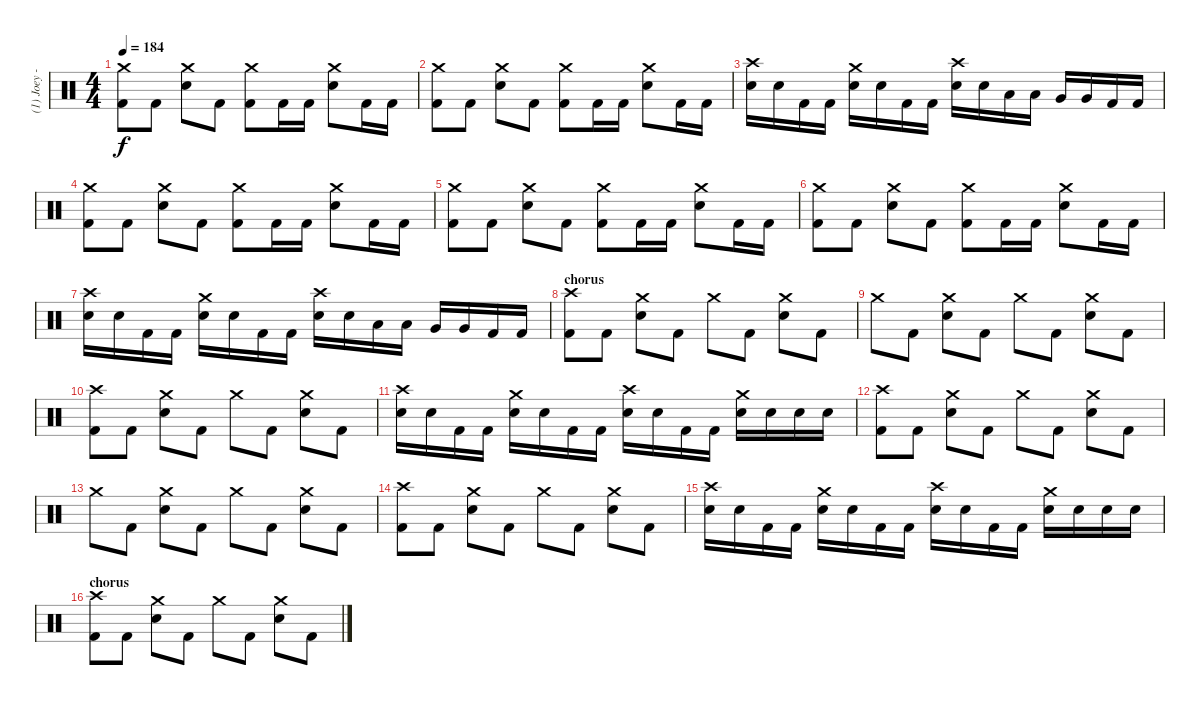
\track ("(1) Joey - drums" "(1) Joey -") {instrument percussion}
\staff {score}
\articulation defaults
\ts (4 4)
\tempo 184
\clef neutral
\ks c
("Crash medium (hit)" "Kick (hit) 2").8{dy f} "Kick (hit) 2".8 ("Crash medium (hit)" "Electric Snare (hit)").8 "Kick (hit) 2".8 ("Crash medium (hit)" "Kick (hit) 2").8 "Kick (hit) 2".16 "Kick (hit) 2".16 ("Crash medium (hit)" "Electric Snare (hit)").8 "Kick (hit) 2".16 "Kick (hit) 2".16 |
("Crash medium (hit)" "Kick (hit) 2").8 "Kick (hit) 2".8 ("Crash medium (hit)" "Electric Snare (hit)").8 "Kick (hit) 2".8 ("Crash medium (hit)" "Kick (hit) 2").8 "Kick (hit) 2".16 "Kick (hit) 2".16 ("Crash medium (hit)" "Electric Snare (hit)").8 "Kick (hit) 2".16 "Kick (hit) 2".16 |
("Crash high (hit)" "Electric Snare (hit)").16 "Electric Snare (hit)".16 "Kick (hit) 2".16 "Kick (hit) 2".16 ("Crash medium (hit)" "Electric Snare (hit)").16 "Electric Snare (hit)".16 "Kick (hit) 2".16 "Kick (hit) 2".16 ("Crash high (hit)" "Electric Snare (hit)").16 "Electric Snare (hit)".16 "Low Tom (hit)".16 "Low Tom (hit)".16 "Very Low Tom (hit)".16 "Very Low Tom (hit)".16 "Kick (hit) 2".16 "Kick (hit) 2".16 |
("Crash medium (hit)" "Kick (hit) 2").8 "Kick (hit) 2".8 ("Crash medium (hit)" "Electric Snare (hit)").8 "Kick (hit) 2".8 ("Crash medium (hit)" "Kick (hit) 2").8 "Kick (hit) 2".16 "Kick (hit) 2".16 ("Crash medium (hit)" "Electric Snare (hit)").8 "Kick (hit) 2".16 "Kick (hit) 2".16 |
("Crash medium (hit)" "Kick (hit) 2").8 "Kick (hit) 2".8 ("Crash medium (hit)" "Electric Snare (hit)").8 "Kick (hit) 2".8 ("Crash medium (hit)" "Kick (hit) 2").8 "Kick (hit) 2".16 "Kick (hit) 2".16 ("Crash medium (hit)" "Electric Snare (hit)").8 "Kick (hit) 2".16 "Kick (hit) 2".16 |
("Crash medium (hit)" "Kick (hit) 2").8 "Kick (hit) 2".8 ("Crash medium (hit)" "Electric Snare (hit)").8 "Kick (hit) 2".8 ("Crash medium (hit)" "Kick (hit) 2").8 "Kick (hit) 2".16 "Kick (hit) 2".16 ("Crash medium (hit)" "Electric Snare (hit)").8 "Kick (hit) 2".16 "Kick (hit) 2".16 |
("Crash high (hit)" "Electric Snare (hit)").16 "Electric Snare (hit)".16 "Kick (hit) 2".16 "Kick (hit) 2".16 ("Crash medium (hit)" "Electric Snare (hit)").16 "Electric Snare (hit)".16 "Kick (hit) 2".16 "Kick (hit) 2".16 ("Crash high (hit)" "Electric Snare (hit)").16 "Electric Snare (hit)".16 "Low Tom (hit)".16 "Low Tom (hit)".16 "Very Low Tom (hit)".16 "Very Low Tom (hit)".16 "Kick (hit) 2".16 "Kick (hit) 2".16 |
\section ("" "chorus")
("Crash high (hit)" "Kick (hit) 2").8 "Kick (hit) 2".8 ("Crash medium (hit)" "Electric Snare (hit)").8 "Kick (hit) 2".8 "Crash medium (hit)".8 "Kick (hit) 2".8 ("Crash medium (hit)" "Electric Snare (hit)").8 "Kick (hit) 2".8 |
"Crash medium (hit)".8 "Kick (hit) 2".8 ("Crash medium (hit)" "Electric Snare (hit)").8 "Kick (hit) 2".8 "Crash medium (hit)".8 "Kick (hit) 2".8 ("Crash medium (hit)" "Electric Snare (hit)").8 "Kick (hit) 2".8 |
("Crash high (hit)" "Kick (hit) 2").8 "Kick (hit) 2".8 ("Crash medium (hit)" "Electric Snare (hit)").8 "Kick (hit) 2".8 "Crash medium (hit)".8 "Kick (hit) 2".8 ("Crash medium (hit)" "Electric Snare (hit)").8 "Kick (hit) 2".8 |
("Crash high (hit)" "Electric Snare (hit)").16 "Electric Snare (hit)".16 "Kick (hit) 2".16 "Kick (hit) 2".16 ("Crash medium (hit)" "Electric Snare (hit)").16 "Electric Snare (hit)".16 "Kick (hit) 2".16 "Kick (hit) 2".16 ("Crash high (hit)" "Electric Snare (hit)").16 "Electric Snare (hit)".16 "Kick (hit) 2".16 "Kick (hit) 2".16 ("Crash medium (hit)" "Electric Snare (hit)").16 "Electric Snare (hit)".16 "Electric Snare (hit)".16 "Electric Snare (hit)".16 |
("Crash high (hit)" "Kick (hit) 2").8 "Kick (hit) 2".8 ("Crash medium (hit)" "Electric Snare (hit)").8 "Kick (hit) 2".8 "Crash medium (hit)".8 "Kick (hit) 2".8 ("Crash medium (hit)" "Electric Snare (hit)").8 "Kick (hit) 2".8 |
"Crash medium (hit)".8 "Kick (hit) 2".8 ("Crash medium (hit)" "Electric Snare (hit)").8 "Kick (hit) 2".8 "Crash medium (hit)".8 "Kick (hit) 2".8 ("Crash medium (hit)" "Electric Snare (hit)").8 "Kick (hit) 2".8 |
("Crash high (hit)" "Kick (hit) 2").8 "Kick (hit) 2".8 ("Crash medium (hit)" "Electric Snare (hit)").8 "Kick (hit) 2".8 "Crash medium (hit)".8 "Kick (hit) 2".8 ("Crash medium (hit)" "Electric Snare (hit)").8 "Kick (hit) 2".8 |
("Crash high (hit)" "Electric Snare (hit)").16 "Electric Snare (hit)".16 "Kick (hit) 2".16 "Kick (hit) 2".16 ("Crash medium (hit)" "Electric Snare (hit)").16 "Electric Snare (hit)".16 "Kick (hit) 2".16 "Kick (hit) 2".16 ("Crash high (hit)" "Electric Snare (hit)").16 "Electric Snare (hit)".16 "Kick (hit) 2".16 "Kick (hit) 2".16 ("Crash medium (hit)" "Electric Snare (hit)").16 "Electric Snare (hit)".16 "Electric Snare (hit)".16 "Electric Snare (hit)".16 |
\section ("" "chorus")
("Crash high (hit)" "Kick (hit) 2").8 "Kick (hit) 2".8 ("Crash medium (hit)" "Electric Snare (hit)").8 "Kick (hit) 2".8 "Crash medium (hit)".8 "Kick (hit) 2".8 ("Crash medium (hit)" "Electric Snare (hit)").8 "Kick (hit) 2".8
